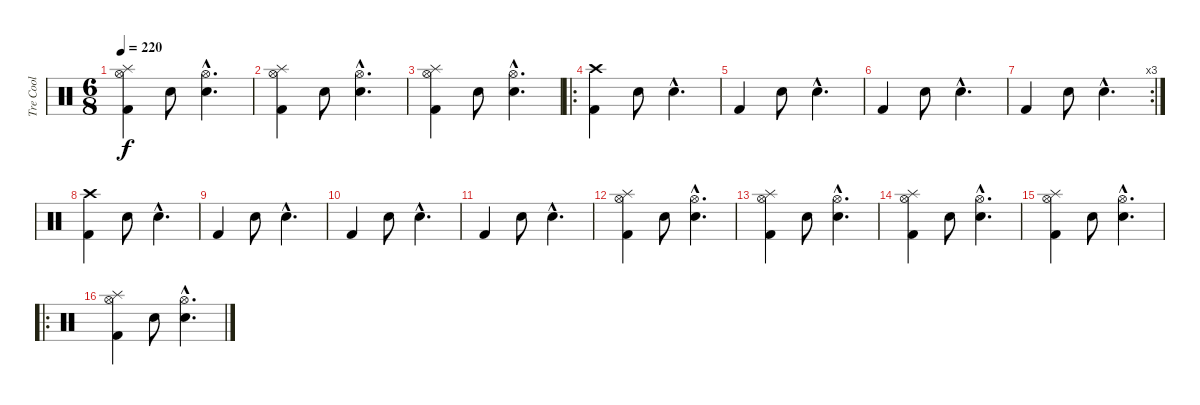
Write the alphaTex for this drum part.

\track ("Tre Cool" "Tre Cool") {instrument percussion}
\staff {score}
\articulation defaults
\ts (6 8)
\tempo 220
\clef neutral
\ks c
("Hi-Hat (open)" "Splash (hit)" "Kick (hit) 2").4{dy f} "Snare (hit) 2".8 ("Electric Snare (hit)"{hac} "Hi-Hat (open)"{hac}).4{d} |
("Hi-Hat (open)" "Splash (hit)" "Kick (hit) 2").4 "Snare (hit) 2".8 ("Electric Snare (hit)"{hac} "Hi-Hat (open)"{hac}).4{d} |
("Hi-Hat (open)" "Splash (hit)" "Kick (hit) 2").4 "Snare (hit) 2".8 ("Electric Snare (hit)"{hac} "Hi-Hat (open)"{hac}).4{d} |
\ro
("Crash high (hit)" "Kick (hit) 2").4 "Snare (hit) 2".8 "Electric Snare (hit)"{hac}.4{d} |
"Kick (hit) 2".4 "Snare (hit) 2".8 "Electric Snare (hit)"{hac}.4{d} |
"Kick (hit) 2".4 "Snare (hit) 2".8 "Electric Snare (hit)"{hac}.4{d} |
\rc 3 "Kick (hit) 2".4 "Snare (hit) 2".8 "Electric Snare (hit)"{hac}.4{d}
|
("Crash high (hit)" "Kick (hit) 2").4 "Snare (hit) 2".8 "Electric Snare (hit)"{hac}.4{d} |
"Kick (hit) 2".4 "Snare (hit) 2".8 "Electric Snare (hit)"{hac}.4{d} |
"Kick (hit) 2".4 "Snare (hit) 2".8 "Electric Snare (hit)"{hac}.4{d} |
"Kick (hit) 2".4 "Snare (hit) 2".8 "Electric Snare (hit)"{hac}.4{d} |
("Hi-Hat (open)" "Splash (hit)" "Kick (hit) 2").4 "Snare (hit) 2".8 ("Electric Snare (hit)"{hac} "Hi-Hat (open)"{hac}).4{d} |
("Hi-Hat (open)" "Splash (hit)" "Kick (hit) 2").4 "Snare (hit) 2".8 ("Electric Snare (hit)"{hac} "Hi-Hat (open)"{hac}).4{d} |
("Hi-Hat (open)" "Splash (hit)" "Kick (hit) 2").4 "Snare (hit) 2".8 ("Electric Snare (hit)"{hac} "Hi-Hat (open)"{hac}).4{d} |
("Hi-Hat (open)" "Splash (hit)" "Kick (hit) 2").4 "Snare (hit) 2".8 ("Electric Snare (hit)"{hac} "Hi-Hat (open)"{hac}).4{d} |
\ro
("Hi-Hat (open)" "Splash (hit)" "Kick (hit) 2").4 "Snare (hit) 2".8 ("Electric Snare (hit)"{hac} "Hi-Hat (open)"{hac}).4{d}
